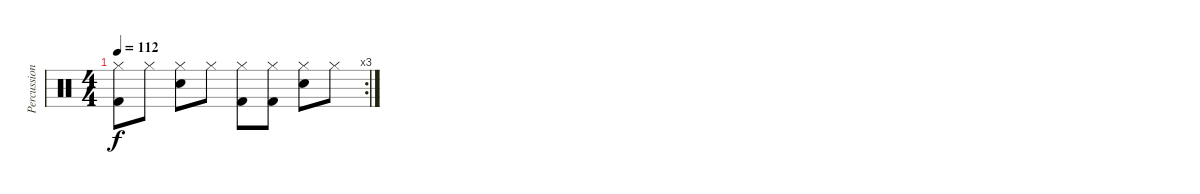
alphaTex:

\track ("Percussion" "Percussion") {instrument percussion}
\staff {score}
\articulation defaults
\rc 3
\ts (4 4)
\tempo 112
\clef neutral
\ks c
("Kick (hit) 2" "Hi-Hat (closed)").8{dy f} "Hi-Hat (closed)".8 ("Snare (hit) 2" "Hi-Hat (closed)").8 "Hi-Hat (closed)".8 ("Kick (hit) 2" "Hi-Hat (closed)").8 ("Kick (hit) 2" "Hi-Hat (closed)").8 ("Snare (hit) 2" "Hi-Hat (closed)").8 "Hi-Hat (closed)".8
